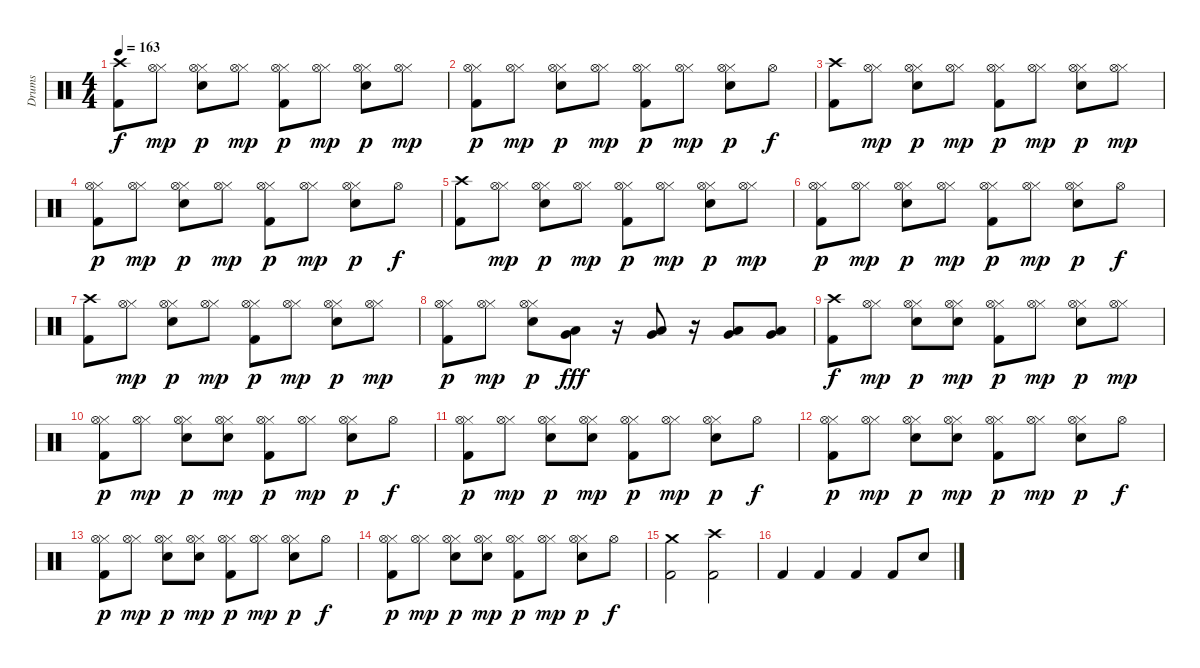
\track ("Drums" "Drums") {instrument percussion}
\staff {score}
\articulation defaults
\ts (4 4)
\tempo 163
\clef neutral
\ks c
("Kick (hit) 2" "Crash high (hit)").8{dy f} ("Hi-Hat (closed)" "Hi-Hat (open)").8{dy mp} ("Electric Snare (hit)" "Hi-Hat (closed)" "Hi-Hat (open)").8{dy p} ("Hi-Hat (closed)" "Hi-Hat (open)").8{dy mp} ("Kick (hit) 2" "Hi-Hat (closed)" "Hi-Hat (open)").8{dy p} ("Hi-Hat (closed)" "Hi-Hat (open)").8{dy mp} ("Electric Snare (hit)" "Hi-Hat (closed)" "Hi-Hat (open)").8{dy p} ("Hi-Hat (closed)" "Hi-Hat (open)").8{dy mp} |
("Kick (hit) 2" "Hi-Hat (closed)" "Hi-Hat (open)").8{dy p} ("Hi-Hat (closed)" "Hi-Hat (open)").8{dy mp} ("Electric Snare (hit)" "Hi-Hat (closed)" "Hi-Hat (open)").8{dy p} ("Hi-Hat (closed)" "Hi-Hat (open)").8{dy mp} ("Kick (hit) 2" "Hi-Hat (closed)" "Hi-Hat (open)").8{dy p} ("Hi-Hat (closed)" "Hi-Hat (open)").8{dy mp} ("Electric Snare (hit)" "Hi-Hat (closed)" "Hi-Hat (open)").8{dy p} "Hi-Hat (open)".8{dy f} |
("Kick (hit) 2" "Crash high (hit)").8 ("Hi-Hat (closed)" "Hi-Hat (open)").8{dy mp} ("Electric Snare (hit)" "Hi-Hat (closed)" "Hi-Hat (open)").8{dy p} ("Hi-Hat (closed)" "Hi-Hat (open)").8{dy mp} ("Kick (hit) 2" "Hi-Hat (closed)" "Hi-Hat (open)").8{dy p} ("Hi-Hat (closed)" "Hi-Hat (open)").8{dy mp} ("Electric Snare (hit)" "Hi-Hat (closed)" "Hi-Hat (open)").8{dy p} ("Hi-Hat (closed)" "Hi-Hat (open)").8{dy mp} |
("Kick (hit) 2" "Hi-Hat (closed)" "Hi-Hat (open)").8{dy p} ("Hi-Hat (closed)" "Hi-Hat (open)").8{dy mp} ("Electric Snare (hit)" "Hi-Hat (closed)" "Hi-Hat (open)").8{dy p} ("Hi-Hat (closed)" "Hi-Hat (open)").8{dy mp} ("Kick (hit) 2" "Hi-Hat (closed)" "Hi-Hat (open)").8{dy p} ("Hi-Hat (closed)" "Hi-Hat (open)").8{dy mp} ("Electric Snare (hit)" "Hi-Hat (closed)" "Hi-Hat (open)").8{dy p} "Hi-Hat (open)".8{dy f} |
("Kick (hit) 2" "Crash high (hit)").8 ("Hi-Hat (closed)" "Hi-Hat (open)").8{dy mp} ("Electric Snare (hit)" "Hi-Hat (closed)" "Hi-Hat (open)").8{dy p} ("Hi-Hat (closed)" "Hi-Hat (open)").8{dy mp} ("Kick (hit) 2" "Hi-Hat (closed)" "Hi-Hat (open)").8{dy p} ("Hi-Hat (closed)" "Hi-Hat (open)").8{dy mp} ("Electric Snare (hit)" "Hi-Hat (closed)" "Hi-Hat (open)").8{dy p} ("Hi-Hat (closed)" "Hi-Hat (open)").8{dy mp} |
("Kick (hit) 2" "Hi-Hat (closed)" "Hi-Hat (open)").8{dy p} ("Hi-Hat (closed)" "Hi-Hat (open)").8{dy mp} ("Electric Snare (hit)" "Hi-Hat (closed)" "Hi-Hat (open)").8{dy p} ("Hi-Hat (closed)" "Hi-Hat (open)").8{dy mp} ("Kick (hit) 2" "Hi-Hat (closed)" "Hi-Hat (open)").8{dy p} ("Hi-Hat (closed)" "Hi-Hat (open)").8{dy mp} ("Electric Snare (hit)" "Hi-Hat (closed)" "Hi-Hat (open)").8{dy p} "Hi-Hat (open)".8{dy f} |
("Kick (hit) 2" "Crash high (hit)").8 ("Hi-Hat (closed)" "Hi-Hat (open)").8{dy mp} ("Electric Snare (hit)" "Hi-Hat (closed)" "Hi-Hat (open)").8{dy p} ("Hi-Hat (closed)" "Hi-Hat (open)").8{dy mp} ("Kick (hit) 2" "Hi-Hat (closed)" "Hi-Hat (open)").8{dy p} ("Hi-Hat (closed)" "Hi-Hat (open)").8{dy mp} ("Electric Snare (hit)" "Hi-Hat (closed)" "Hi-Hat (open)").8{dy p} ("Hi-Hat (closed)" "Hi-Hat (open)").8{dy mp} |
("Kick (hit) 2" "Hi-Hat (closed)" "Hi-Hat (open)").8{dy p} ("Hi-Hat (closed)" "Hi-Hat (open)").8{dy mp} ("Electric Snare (hit)" "Hi-Hat (closed)" "Hi-Hat (open)").8{dy p} ("Low Floor Tom (hit)" "Very Low Tom (hit)").8{dy fff} r.16 ("Low Floor Tom (hit)" "Very Low Tom (hit)").8 r.16 ("Low Floor Tom (hit)" "Very Low Tom (hit)").8 ("Low Floor Tom (hit)" "Very Low Tom (hit)").8 |
("Kick (hit) 2" "Crash high (hit)").8{dy f} ("Hi-Hat (closed)" "Hi-Hat (open)").8{dy mp} ("Electric Snare (hit)" "Hi-Hat (closed)" "Hi-Hat (open)").8{dy p} ("Electric Snare (hit)" "Hi-Hat (closed)" "Hi-Hat (open)").8{dy mp} ("Kick (hit) 2" "Hi-Hat (closed)" "Hi-Hat (open)").8{dy p} ("Hi-Hat (closed)" "Hi-Hat (open)").8{dy mp} ("Electric Snare (hit)" "Hi-Hat (closed)" "Hi-Hat (open)").8{dy p} ("Hi-Hat (closed)" "Hi-Hat (open)").8{dy mp} |
("Kick (hit) 2" "Hi-Hat (closed)" "Hi-Hat (open)").8{dy p} ("Hi-Hat (closed)" "Hi-Hat (open)").8{dy mp} ("Electric Snare (hit)" "Hi-Hat (closed)" "Hi-Hat (open)").8{dy p} ("Electric Snare (hit)" "Hi-Hat (closed)" "Hi-Hat (open)").8{dy mp} ("Kick (hit) 2" "Hi-Hat (closed)" "Hi-Hat (open)").8{dy p} ("Hi-Hat (closed)" "Hi-Hat (open)").8{dy mp} ("Electric Snare (hit)" "Hi-Hat (closed)" "Hi-Hat (open)").8{dy p} "Hi-Hat (open)".8{dy f} |
("Kick (hit) 2" "Hi-Hat (closed)" "Hi-Hat (open)").8{dy p} ("Hi-Hat (closed)" "Hi-Hat (open)").8{dy mp} ("Electric Snare (hit)" "Hi-Hat (closed)" "Hi-Hat (open)").8{dy p} ("Electric Snare (hit)" "Hi-Hat (closed)" "Hi-Hat (open)").8{dy mp} ("Kick (hit) 2" "Hi-Hat (closed)" "Hi-Hat (open)").8{dy p} ("Hi-Hat (closed)" "Hi-Hat (open)").8{dy mp} ("Electric Snare (hit)" "Hi-Hat (closed)" "Hi-Hat (open)").8{dy p} "Hi-Hat (open)".8{dy f} |
("Kick (hit) 2" "Hi-Hat (closed)" "Hi-Hat (open)").8{dy p} ("Hi-Hat (closed)" "Hi-Hat (open)").8{dy mp} ("Electric Snare (hit)" "Hi-Hat (closed)" "Hi-Hat (open)").8{dy p} ("Electric Snare (hit)" "Hi-Hat (closed)" "Hi-Hat (open)").8{dy mp} ("Kick (hit) 2" "Hi-Hat (closed)" "Hi-Hat (open)").8{dy p} ("Hi-Hat (closed)" "Hi-Hat (open)").8{dy mp} ("Electric Snare (hit)" "Hi-Hat (closed)" "Hi-Hat (open)").8{dy p} "Hi-Hat (open)".8{dy f} |
("Kick (hit) 2" "Hi-Hat (closed)" "Hi-Hat (open)").8{dy p} ("Hi-Hat (closed)" "Hi-Hat (open)").8{dy mp} ("Electric Snare (hit)" "Hi-Hat (closed)" "Hi-Hat (open)").8{dy p} ("Electric Snare (hit)" "Hi-Hat (closed)" "Hi-Hat (open)").8{dy mp} ("Kick (hit) 2" "Hi-Hat (closed)" "Hi-Hat (open)").8{dy p} ("Hi-Hat (closed)" "Hi-Hat (open)").8{dy mp} ("Electric Snare (hit)" "Hi-Hat (closed)" "Hi-Hat (open)").8{dy p} "Hi-Hat (open)".8{dy f} |
("Kick (hit) 2" "Hi-Hat (closed)" "Hi-Hat (open)").8{dy p} ("Hi-Hat (closed)" "Hi-Hat (open)").8{dy mp} ("Electric Snare (hit)" "Hi-Hat (closed)" "Hi-Hat (open)").8{dy p} ("Electric Snare (hit)" "Hi-Hat (closed)" "Hi-Hat (open)").8{dy mp} ("Kick (hit) 2" "Hi-Hat (closed)" "Hi-Hat (open)").8{dy p} ("Hi-Hat (closed)" "Hi-Hat (open)").8{dy mp} ("Electric Snare (hit)" "Hi-Hat (closed)" "Hi-Hat (open)").8{dy p} "Hi-Hat (open)".8{dy f} |
("Kick (hit) 2" "Crash medium (hit)").2 ("Kick (hit) 2" "Crash high (hit)").2 |
"Kick (hit) 2".4 "Kick (hit) 2".4 "Kick (hit) 2".4 "Kick (hit) 2".8 "Electric Snare (hit)".8
